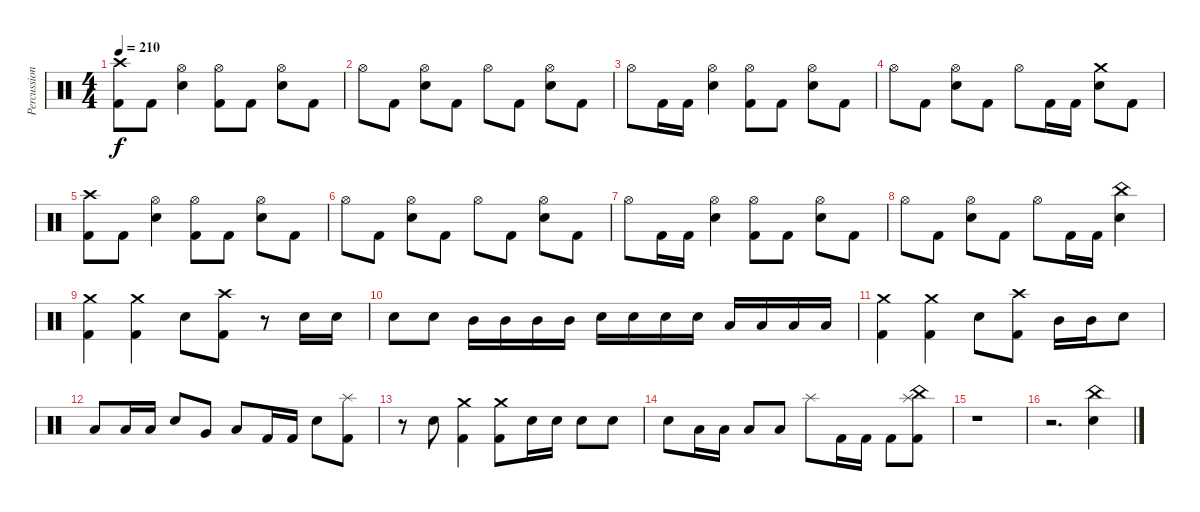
\track ("Percussion" "Percussion") {instrument percussion}
\staff {score}
\articulation defaults
\ts (4 4)
\tempo 210
\clef neutral
\ks c
("Crash high (hit)" "Kick (hit) 2").8{dy f} "Kick (hit) 2".8 ("Hi-Hat (open)" "Electric Snare (hit)").4 ("Hi-Hat (open)" "Kick (hit) 2").8 "Kick (hit) 2".8 ("Hi-Hat (open)" "Electric Snare (hit)").8 "Kick (hit) 2".8 |
"Hi-Hat (open)".8 "Kick (hit) 2".8 ("Hi-Hat (open)" "Electric Snare (hit)").8 "Kick (hit) 2".8 "Hi-Hat (open)".8 "Kick (hit) 2".8 ("Hi-Hat (open)" "Electric Snare (hit)").8 "Kick (hit) 2".8 |
"Hi-Hat (open)".8 "Kick (hit) 2".16 "Kick (hit) 2".16 ("Hi-Hat (open)" "Electric Snare (hit)").4 ("Hi-Hat (open)" "Kick (hit) 2").8 "Kick (hit) 2".8 ("Hi-Hat (open)" "Electric Snare (hit)").8 "Kick (hit) 2".8 |
"Hi-Hat (open)".8 "Kick (hit) 2".8 ("Hi-Hat (open)" "Electric Snare (hit)").8 "Kick (hit) 2".8 "Hi-Hat (open)".8 "Kick (hit) 2".16 "Kick (hit) 2".16 ("Crash medium (hit)" "Electric Snare (hit)").8 "Kick (hit) 2".8 |
("Crash high (hit)" "Kick (hit) 2").8 "Kick (hit) 2".8 ("Hi-Hat (open)" "Electric Snare (hit)").4 ("Hi-Hat (open)" "Kick (hit) 2").8 "Kick (hit) 2".8 ("Hi-Hat (open)" "Electric Snare (hit)").8 "Kick (hit) 2".8 |
"Hi-Hat (open)".8 "Kick (hit) 2".8 ("Hi-Hat (open)" "Electric Snare (hit)").8 "Kick (hit) 2".8 "Hi-Hat (open)".8 "Kick (hit) 2".8 ("Hi-Hat (open)" "Electric Snare (hit)").8 "Kick (hit) 2".8 |
"Hi-Hat (open)".8 "Kick (hit) 2".16 "Kick (hit) 2".16 ("Hi-Hat (open)" "Electric Snare (hit)").4 ("Hi-Hat (open)" "Kick (hit) 2").8 "Kick (hit) 2".8 ("Hi-Hat (open)" "Electric Snare (hit)").8 "Kick (hit) 2".8 |
"Hi-Hat (open)".8 "Kick (hit) 2".8 ("Hi-Hat (open)" "Electric Snare (hit)").8 "Kick (hit) 2".8 "Hi-Hat (open)".8 "Kick (hit) 2".16 "Kick (hit) 2".16 ("China (hit)" "Electric Snare (hit)").4 |
("Crash medium (hit)" "Kick (hit) 2").4 ("Crash medium (hit)" "Kick (hit) 2").4 "Electric Snare (hit)".8 ("Crash high (hit)" "Kick (hit) 2").8 r.8 "Electric Snare (hit)".16 "Electric Snare (hit)".16 |
"Electric Snare (hit)".8 "Electric Snare (hit)".8 "Mid Tom (hit)".16 "Mid Tom (hit)".16 "Mid Tom (hit)".16 "Mid Tom (hit)".16 "Electric Snare (hit)".16 "Electric Snare (hit)".16 "Electric Snare (hit)".16 "Electric Snare (hit)".16 "Low Tom (hit)".16 "Low Tom (hit)".16 "Low Tom (hit)".16 "Low Tom (hit)".16 |
("Crash medium (hit)" "Kick (hit) 2").4 ("Crash medium (hit)" "Kick (hit) 2").4 "Electric Snare (hit)".8 ("Crash high (hit)" "Kick (hit) 2").8 "Mid Tom (hit)".16 "Mid Tom (hit)".16 "Electric Snare (hit)".8 |
"Low Tom (hit)".8 "Low Tom (hit)".16 "Low Tom (hit)".16 "Electric Snare (hit)".8 "Very Low Tom (hit)".8 "Low Floor Tom (hit)".8 "Kick (hit) 2".16 "Kick (hit) 2".16 "Electric Snare (hit)".8 ("Splash (hit)" "Kick (hit) 2").8 |
r.8 "Electric Snare (hit)".8 ("Crash medium (hit)" "Kick (hit) 2").4 ("Crash medium (hit)" "Kick (hit) 2").8 "Electric Snare (hit)".16 "Electric Snare (hit)".16 "Electric Snare (hit)".8 "Electric Snare (hit)".8 |
"Electric Snare (hit)".8 "Low Tom (hit)".16 "Low Tom (hit)".16 "Low Tom (hit)".8 "Low Tom (hit)".8 "Splash (hit)".8 "Kick (hit) 2".16 "Kick (hit) 2".16 "Kick (hit) 2".8 ("Splash (hit)" "China (hit)" "Kick (hit) 2").8 |
r.1 |
r.2{d} ("China (hit)" "Electric Snare (hit)").4
